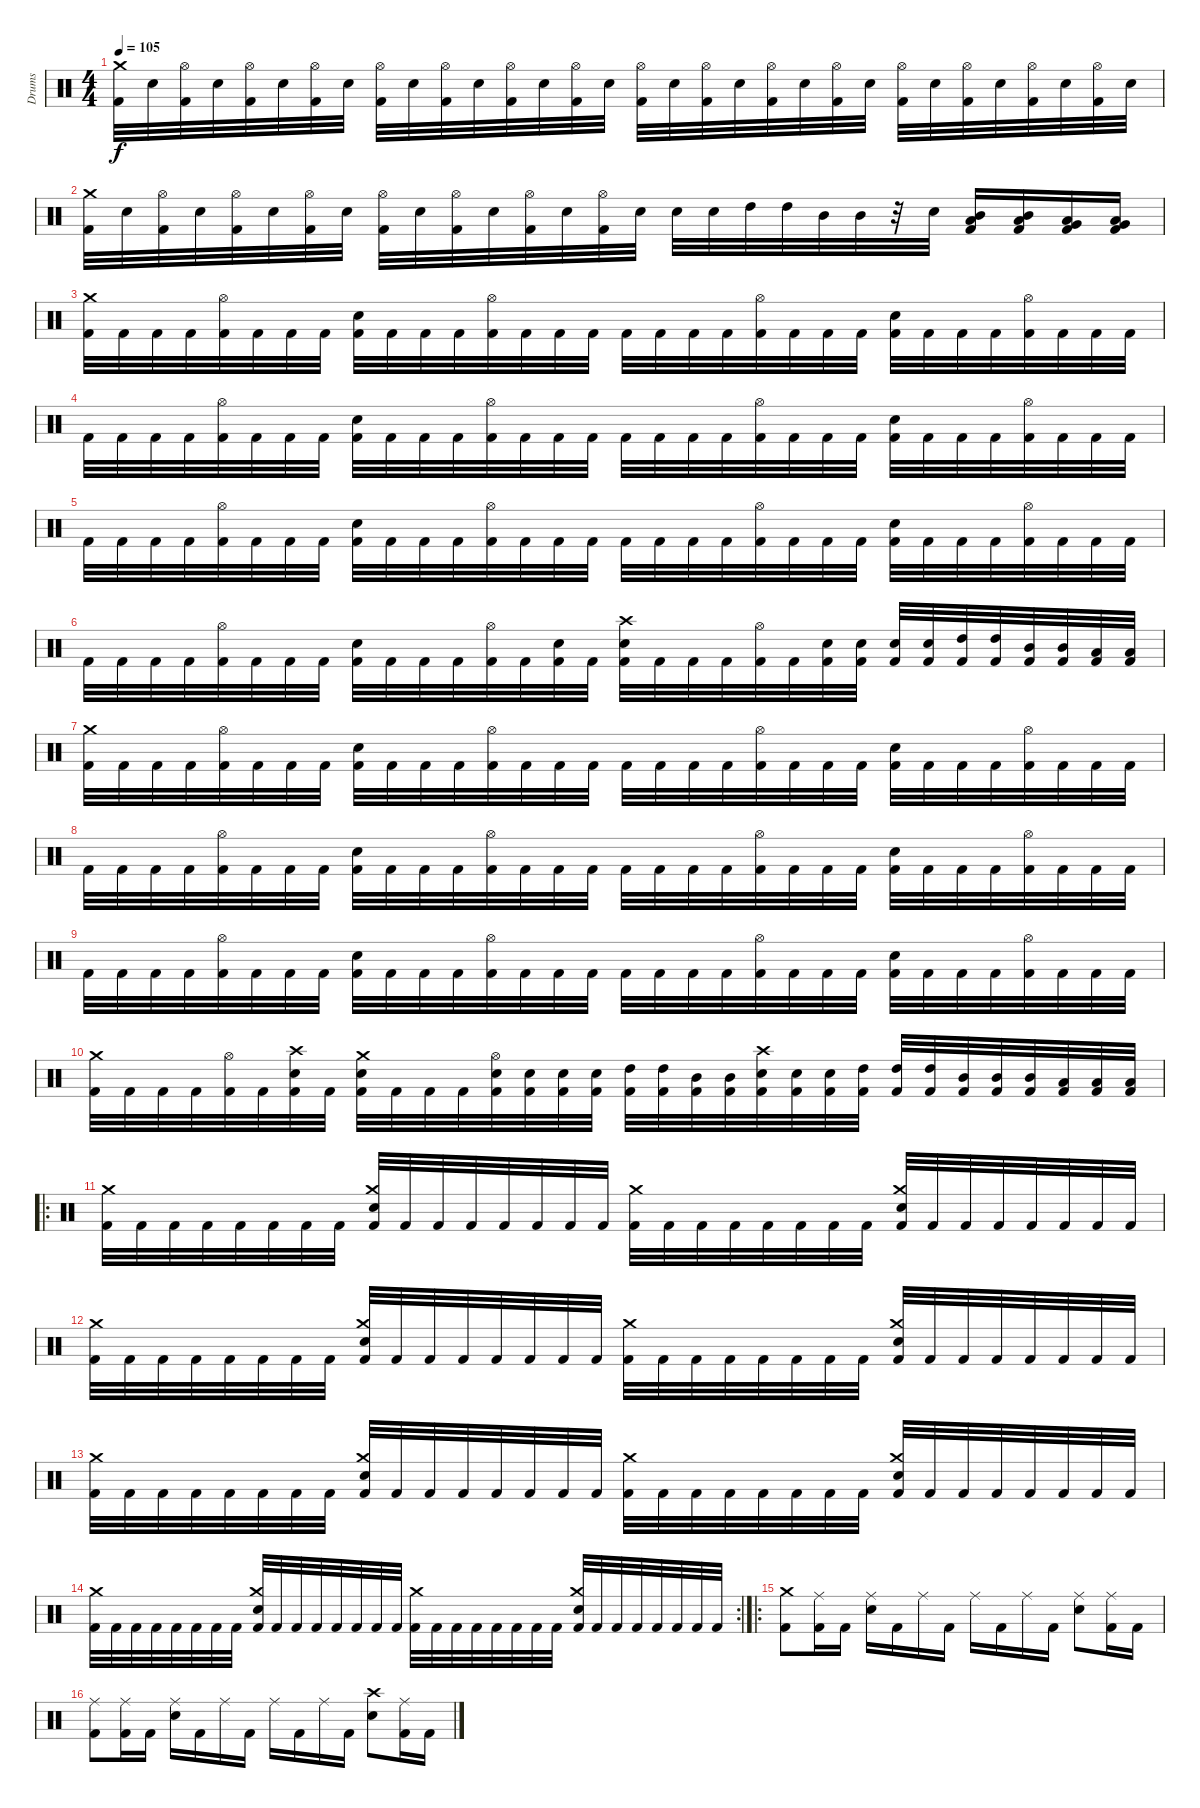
\track ("Drums" "Drums") {instrument percussion}
\staff {score}
\articulation defaults
\ts (4 4)
\tempo 105
\clef neutral
\ks c
("Kick (hit) 2" "Crash medium (hit)").32{dy f} "Electric Snare (hit)".32 ("Kick (hit) 2" "Hi-Hat (open)").32 "Electric Snare (hit)".32 ("Kick (hit) 2" "Hi-Hat (open)").32 "Electric Snare (hit)".32 ("Kick (hit) 2" "Hi-Hat (open)").32 "Electric Snare (hit)".32 ("Kick (hit) 2" "Hi-Hat (open)").32 "Electric Snare (hit)".32 ("Kick (hit) 2" "Hi-Hat (open)").32 "Electric Snare (hit)".32 ("Kick (hit) 2" "Hi-Hat (open)").32 "Electric Snare (hit)".32 ("Kick (hit) 2" "Hi-Hat (open)").32 "Electric Snare (hit)".32 ("Kick (hit) 2" "Hi-Hat (open)").32 "Electric Snare (hit)".32 ("Kick (hit) 2" "Hi-Hat (open)").32 "Electric Snare (hit)".32 ("Kick (hit) 2" "Hi-Hat (open)").32 "Electric Snare (hit)".32 ("Kick (hit) 2" "Hi-Hat (open)").32 "Electric Snare (hit)".32 ("Kick (hit) 2" "Hi-Hat (open)").32 "Electric Snare (hit)".32 ("Kick (hit) 2" "Hi-Hat (open)").32 "Electric Snare (hit)".32 ("Kick (hit) 2" "Hi-Hat (open)").32 "Electric Snare (hit)".32 ("Kick (hit) 2" "Hi-Hat (open)").32 "Electric Snare (hit)".32 |
("Kick (hit) 2" "Crash medium (hit)").32 "Electric Snare (hit)".32 ("Kick (hit) 2" "Hi-Hat (open)").32 "Electric Snare (hit)".32 ("Kick (hit) 2" "Hi-Hat (open)").32 "Electric Snare (hit)".32 ("Kick (hit) 2" "Hi-Hat (open)").32 "Electric Snare (hit)".32 ("Kick (hit) 2" "Hi-Hat (open)").32 "Electric Snare (hit)".32 ("Kick (hit) 2" "Hi-Hat (open)").32 "Electric Snare (hit)".32 ("Kick (hit) 2" "Hi-Hat (open)").32 "Electric Snare (hit)".32 ("Kick (hit) 2" "Hi-Hat (open)").32 "Electric Snare (hit)".32 "Electric Snare (hit)".32 "Electric Snare (hit)".32 "High Tom (hit)".32 "High Tom (hit)".32 "Mid Tom (hit)".32 "Mid Tom (hit)".32 r.32 "Electric Snare (hit)".32 ("Kick (hit) 2" "Mid Tom (hit)" "Low Tom (hit)").16 ("Kick (hit) 2" "Mid Tom (hit)" "Low Tom (hit)").16 ("Kick (hit) 2" "Low Tom (hit)" "Very Low Tom (hit)").16 ("Kick (hit) 2" "Low Tom (hit)" "Very Low Tom (hit)").16 |
("Kick (hit) 2" "Crash medium (hit)").32 "Kick (hit) 2".32 "Kick (hit) 2".32 "Kick (hit) 2".32 ("Kick (hit) 2" "Hi-Hat (open)").32 "Kick (hit) 2".32 "Kick (hit) 2".32 "Kick (hit) 2".32 ("Kick (hit) 2" "Electric Snare (hit)").32 "Kick (hit) 2".32 "Kick (hit) 2".32 "Kick (hit) 2".32 ("Kick (hit) 2" "Hi-Hat (open)").32 "Kick (hit) 2".32 "Kick (hit) 2".32 "Kick (hit) 2".32 "Kick (hit) 2".32 "Kick (hit) 2".32 "Kick (hit) 2".32 "Kick (hit) 2".32 ("Kick (hit) 2" "Hi-Hat (open)").32 "Kick (hit) 2".32 "Kick (hit) 2".32 "Kick (hit) 2".32 ("Kick (hit) 2" "Electric Snare (hit)").32 "Kick (hit) 2".32 "Kick (hit) 2".32 "Kick (hit) 2".32 ("Kick (hit) 2" "Hi-Hat (open)").32 "Kick (hit) 2".32 "Kick (hit) 2".32 "Kick (hit) 2".32 |
"Kick (hit) 2".32 "Kick (hit) 2".32 "Kick (hit) 2".32 "Kick (hit) 2".32 ("Kick (hit) 2" "Hi-Hat (open)").32 "Kick (hit) 2".32 "Kick (hit) 2".32 "Kick (hit) 2".32 ("Kick (hit) 2" "Electric Snare (hit)").32 "Kick (hit) 2".32 "Kick (hit) 2".32 "Kick (hit) 2".32 ("Kick (hit) 2" "Hi-Hat (open)").32 "Kick (hit) 2".32 "Kick (hit) 2".32 "Kick (hit) 2".32 "Kick (hit) 2".32 "Kick (hit) 2".32 "Kick (hit) 2".32 "Kick (hit) 2".32 ("Kick (hit) 2" "Hi-Hat (open)").32 "Kick (hit) 2".32 "Kick (hit) 2".32 "Kick (hit) 2".32 ("Kick (hit) 2" "Electric Snare (hit)").32 "Kick (hit) 2".32 "Kick (hit) 2".32 "Kick (hit) 2".32 ("Kick (hit) 2" "Hi-Hat (open)").32 "Kick (hit) 2".32 "Kick (hit) 2".32 "Kick (hit) 2".32 |
"Kick (hit) 2".32 "Kick (hit) 2".32 "Kick (hit) 2".32 "Kick (hit) 2".32 ("Kick (hit) 2" "Hi-Hat (open)").32 "Kick (hit) 2".32 "Kick (hit) 2".32 "Kick (hit) 2".32 ("Kick (hit) 2" "Electric Snare (hit)").32 "Kick (hit) 2".32 "Kick (hit) 2".32 "Kick (hit) 2".32 ("Kick (hit) 2" "Hi-Hat (open)").32 "Kick (hit) 2".32 "Kick (hit) 2".32 "Kick (hit) 2".32 "Kick (hit) 2".32 "Kick (hit) 2".32 "Kick (hit) 2".32 "Kick (hit) 2".32 ("Kick (hit) 2" "Hi-Hat (open)").32 "Kick (hit) 2".32 "Kick (hit) 2".32 "Kick (hit) 2".32 ("Kick (hit) 2" "Electric Snare (hit)").32 "Kick (hit) 2".32 "Kick (hit) 2".32 "Kick (hit) 2".32 ("Kick (hit) 2" "Hi-Hat (open)").32 "Kick (hit) 2".32 "Kick (hit) 2".32 "Kick (hit) 2".32 |
"Kick (hit) 2".32 "Kick (hit) 2".32 "Kick (hit) 2".32 "Kick (hit) 2".32 ("Kick (hit) 2" "Hi-Hat (open)").32 "Kick (hit) 2".32 "Kick (hit) 2".32 "Kick (hit) 2".32 ("Kick (hit) 2" "Electric Snare (hit)").32 "Kick (hit) 2".32 "Kick (hit) 2".32 "Kick (hit) 2".32 ("Kick (hit) 2" "Hi-Hat (open)").32 "Kick (hit) 2".32 ("Kick (hit) 2" "Electric Snare (hit)").32 "Kick (hit) 2".32 ("Kick (hit) 2" "Electric Snare (hit)" "Crash high (hit)").32 "Kick (hit) 2".32 "Kick (hit) 2".32 "Kick (hit) 2".32 ("Kick (hit) 2" "Hi-Hat (open)").32 "Kick (hit) 2".32 ("Kick (hit) 2" "Electric Snare (hit)").32 ("Kick (hit) 2" "Electric Snare (hit)").32 ("Kick (hit) 2" "Electric Snare (hit)").32 ("Kick (hit) 2" "Electric Snare (hit)").32 ("Kick (hit) 2" "High Tom (hit)").32 ("Kick (hit) 2" "High Tom (hit)").32 ("Kick (hit) 2" "Mid Tom (hit)").32 ("Kick (hit) 2" "Mid Tom (hit)").32 ("Kick (hit) 2" "Low Tom (hit)").32 ("Kick (hit) 2" "Low Tom (hit)").32 |
("Kick (hit) 2" "Crash medium (hit)").32 "Kick (hit) 2".32 "Kick (hit) 2".32 "Kick (hit) 2".32 ("Kick (hit) 2" "Hi-Hat (open)").32 "Kick (hit) 2".32 "Kick (hit) 2".32 "Kick (hit) 2".32 ("Kick (hit) 2" "Electric Snare (hit)").32 "Kick (hit) 2".32 "Kick (hit) 2".32 "Kick (hit) 2".32 ("Kick (hit) 2" "Hi-Hat (open)").32 "Kick (hit) 2".32 "Kick (hit) 2".32 "Kick (hit) 2".32 "Kick (hit) 2".32 "Kick (hit) 2".32 "Kick (hit) 2".32 "Kick (hit) 2".32 ("Kick (hit) 2" "Hi-Hat (open)").32 "Kick (hit) 2".32 "Kick (hit) 2".32 "Kick (hit) 2".32 ("Kick (hit) 2" "Electric Snare (hit)").32 "Kick (hit) 2".32 "Kick (hit) 2".32 "Kick (hit) 2".32 ("Kick (hit) 2" "Hi-Hat (open)").32 "Kick (hit) 2".32 "Kick (hit) 2".32 "Kick (hit) 2".32 |
"Kick (hit) 2".32 "Kick (hit) 2".32 "Kick (hit) 2".32 "Kick (hit) 2".32 ("Kick (hit) 2" "Hi-Hat (open)").32 "Kick (hit) 2".32 "Kick (hit) 2".32 "Kick (hit) 2".32 ("Kick (hit) 2" "Electric Snare (hit)").32 "Kick (hit) 2".32 "Kick (hit) 2".32 "Kick (hit) 2".32 ("Kick (hit) 2" "Hi-Hat (open)").32 "Kick (hit) 2".32 "Kick (hit) 2".32 "Kick (hit) 2".32 "Kick (hit) 2".32 "Kick (hit) 2".32 "Kick (hit) 2".32 "Kick (hit) 2".32 ("Kick (hit) 2" "Hi-Hat (open)").32 "Kick (hit) 2".32 "Kick (hit) 2".32 "Kick (hit) 2".32 ("Kick (hit) 2" "Electric Snare (hit)").32 "Kick (hit) 2".32 "Kick (hit) 2".32 "Kick (hit) 2".32 ("Kick (hit) 2" "Hi-Hat (open)").32 "Kick (hit) 2".32 "Kick (hit) 2".32 "Kick (hit) 2".32 |
"Kick (hit) 2".32 "Kick (hit) 2".32 "Kick (hit) 2".32 "Kick (hit) 2".32 ("Kick (hit) 2" "Hi-Hat (open)").32 "Kick (hit) 2".32 "Kick (hit) 2".32 "Kick (hit) 2".32 ("Kick (hit) 2" "Electric Snare (hit)").32 "Kick (hit) 2".32 "Kick (hit) 2".32 "Kick (hit) 2".32 ("Kick (hit) 2" "Hi-Hat (open)").32 "Kick (hit) 2".32 "Kick (hit) 2".32 "Kick (hit) 2".32 "Kick (hit) 2".32 "Kick (hit) 2".32 "Kick (hit) 2".32 "Kick (hit) 2".32 ("Kick (hit) 2" "Hi-Hat (open)").32 "Kick (hit) 2".32 "Kick (hit) 2".32 "Kick (hit) 2".32 ("Kick (hit) 2" "Electric Snare (hit)").32 "Kick (hit) 2".32 "Kick (hit) 2".32 "Kick (hit) 2".32 ("Kick (hit) 2" "Hi-Hat (open)").32 "Kick (hit) 2".32 "Kick (hit) 2".32 "Kick (hit) 2".32 |
("Kick (hit) 2" "Crash medium (hit)").32 "Kick (hit) 2".32 "Kick (hit) 2".32 "Kick (hit) 2".32 ("Kick (hit) 2" "Hi-Hat (open)").32 "Kick (hit) 2".32 ("Kick (hit) 2" "Electric Snare (hit)" "Crash high (hit)").32 "Kick (hit) 2".32 ("Kick (hit) 2" "Electric Snare (hit)" "Crash medium (hit)").32 "Kick (hit) 2".32 "Kick (hit) 2".32 "Kick (hit) 2".32 ("Kick (hit) 2" "Electric Snare (hit)" "Hi-Hat (open)").32 ("Kick (hit) 2" "Electric Snare (hit)").32 ("Kick (hit) 2" "Electric Snare (hit)").32 ("Kick (hit) 2" "Electric Snare (hit)").32 ("Kick (hit) 2" "High Tom (hit)").32 ("Kick (hit) 2" "High Tom (hit)").32 ("Kick (hit) 2" "Mid Tom (hit)").32 ("Kick (hit) 2" "Mid Tom (hit)").32 ("Kick (hit) 2" "Electric Snare (hit)" "Crash high (hit)").32 ("Kick (hit) 2" "Electric Snare (hit)").32 ("Kick (hit) 2" "Electric Snare (hit)").32 ("Kick (hit) 2" "High Tom (hit)").32 ("Kick (hit) 2" "High Tom (hit)").32 ("Kick (hit) 2" "High Tom (hit)").32 ("Kick (hit) 2" "Mid Tom (hit)").32 ("Kick (hit) 2" "Mid Tom (hit)").32 ("Kick (hit) 2" "Mid Tom (hit)").32 ("Kick (hit) 2" "Low Tom (hit)").32 ("Kick (hit) 2" "Low Tom (hit)").32 ("Kick (hit) 2" "Low Tom (hit)").32 |
\ro
("Kick (hit) 2" "Crash medium (hit)").32 "Kick (hit) 2".32 "Kick (hit) 2".32 "Kick (hit) 2".32 "Kick (hit) 2".32 "Kick (hit) 2".32 "Kick (hit) 2".32 "Kick (hit) 2".32 ("Kick (hit) 2" "Electric Snare (hit)" "Crash medium (hit)").32 "Kick (hit) 2".32 "Kick (hit) 2".32 "Kick (hit) 2".32 "Kick (hit) 2".32 "Kick (hit) 2".32 "Kick (hit) 2".32 "Kick (hit) 2".32 ("Kick (hit) 2" "Crash medium (hit)").32 "Kick (hit) 2".32 "Kick (hit) 2".32 "Kick (hit) 2".32 "Kick (hit) 2".32 "Kick (hit) 2".32 "Kick (hit) 2".32 "Kick (hit) 2".32 ("Kick (hit) 2" "Electric Snare (hit)" "Crash medium (hit)").32 "Kick (hit) 2".32 "Kick (hit) 2".32 "Kick (hit) 2".32 "Kick (hit) 2".32 "Kick (hit) 2".32 "Kick (hit) 2".32 "Kick (hit) 2".32 |
("Kick (hit) 2" "Crash medium (hit)").32 "Kick (hit) 2".32 "Kick (hit) 2".32 "Kick (hit) 2".32 "Kick (hit) 2".32 "Kick (hit) 2".32 "Kick (hit) 2".32 "Kick (hit) 2".32 ("Kick (hit) 2" "Electric Snare (hit)" "Crash medium (hit)").32 "Kick (hit) 2".32 "Kick (hit) 2".32 "Kick (hit) 2".32 "Kick (hit) 2".32 "Kick (hit) 2".32 "Kick (hit) 2".32 "Kick (hit) 2".32 ("Kick (hit) 2" "Crash medium (hit)").32 "Kick (hit) 2".32 "Kick (hit) 2".32 "Kick (hit) 2".32 "Kick (hit) 2".32 "Kick (hit) 2".32 "Kick (hit) 2".32 "Kick (hit) 2".32 ("Kick (hit) 2" "Electric Snare (hit)" "Crash medium (hit)").32 "Kick (hit) 2".32 "Kick (hit) 2".32 "Kick (hit) 2".32 "Kick (hit) 2".32 "Kick (hit) 2".32 "Kick (hit) 2".32 "Kick (hit) 2".32 |
("Kick (hit) 2" "Crash medium (hit)").32 "Kick (hit) 2".32 "Kick (hit) 2".32 "Kick (hit) 2".32 "Kick (hit) 2".32 "Kick (hit) 2".32 "Kick (hit) 2".32 "Kick (hit) 2".32 ("Kick (hit) 2" "Electric Snare (hit)" "Crash medium (hit)").32 "Kick (hit) 2".32 "Kick (hit) 2".32 "Kick (hit) 2".32 "Kick (hit) 2".32 "Kick (hit) 2".32 "Kick (hit) 2".32 "Kick (hit) 2".32 ("Kick (hit) 2" "Crash medium (hit)").32 "Kick (hit) 2".32 "Kick (hit) 2".32 "Kick (hit) 2".32 "Kick (hit) 2".32 "Kick (hit) 2".32 "Kick (hit) 2".32 "Kick (hit) 2".32 ("Kick (hit) 2" "Electric Snare (hit)" "Crash medium (hit)").32 "Kick (hit) 2".32 "Kick (hit) 2".32 "Kick (hit) 2".32 "Kick (hit) 2".32 "Kick (hit) 2".32 "Kick (hit) 2".32 "Kick (hit) 2".32 |
\rc 2
("Kick (hit) 2" "Crash medium (hit)").32 "Kick (hit) 2".32 "Kick (hit) 2".32 "Kick (hit) 2".32 "Kick (hit) 2".32 "Kick (hit) 2".32 "Kick (hit) 2".32 "Kick (hit) 2".32 ("Kick (hit) 2" "Electric Snare (hit)" "Crash medium (hit)").32 "Kick (hit) 2".32 "Kick (hit) 2".32 "Kick (hit) 2".32 "Kick (hit) 2".32 "Kick (hit) 2".32 "Kick (hit) 2".32 "Kick (hit) 2".32 ("Kick (hit) 2" "Crash medium (hit)").32 "Kick (hit) 2".32 "Kick (hit) 2".32 "Kick (hit) 2".32 "Kick (hit) 2".32 "Kick (hit) 2".32 "Kick (hit) 2".32 "Kick (hit) 2".32 ("Kick (hit) 2" "Electric Snare (hit)" "Crash medium (hit)").32 "Kick (hit) 2".32 "Kick (hit) 2".32 "Kick (hit) 2".32 "Kick (hit) 2".32 "Kick (hit) 2".32 "Kick (hit) 2".32 "Kick (hit) 2".32 |
\ro
("Kick (hit) 2" "Crash medium (hit)").8 ("Kick (hit) 2" "Ride (middle)").16 "Kick (hit) 2".16 ("Electric Snare (hit)" "Ride (middle)").16 "Kick (hit) 2".16 "Ride (middle)".16 "Kick (hit) 2".16 "Ride (middle)".16 "Kick (hit) 2".16 "Ride (middle)".16 "Kick (hit) 2".16 ("Electric Snare (hit)" "Ride (middle)").8 ("Kick (hit) 2" "Ride (middle)").16 "Kick (hit) 2".16 |
("Kick (hit) 2" "Ride (middle)").8 ("Kick (hit) 2" "Ride (middle)").16 "Kick (hit) 2".16 ("Electric Snare (hit)" "Ride (middle)").16 "Kick (hit) 2".16 "Ride (middle)".16 "Kick (hit) 2".16 "Ride (middle)".16 "Kick (hit) 2".16 "Ride (middle)".16 "Kick (hit) 2".16 ("Electric Snare (hit)" "Crash high (hit)").8 ("Kick (hit) 2" "Ride (middle)").16 "Kick (hit) 2".16
